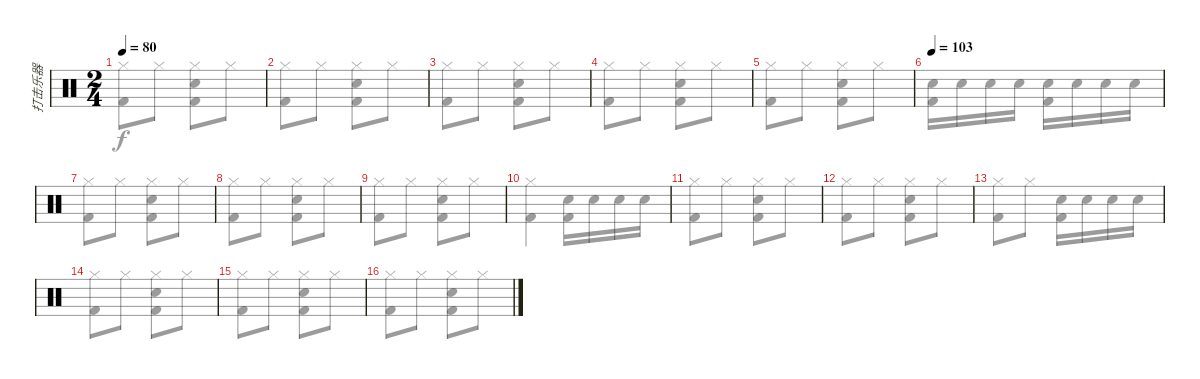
\track ("打击乐器" "打击乐器") {instrument percussion bank 10}
\staff {score}
\articulation defaults
\voice
\ts (2 4)
\tempo 80
\clef neutral
\ks c
|
|
|
|
|
\tempo 103
|
|
|
|
|
|
|
|
|
|
\voice
\clef neutral
\ks c
("Hi-Hat (closed)" "Kick (hit) 2").8{dy f} "Hi-Hat (closed)".8 ("Hi-Hat (closed)" "Electric Snare (hit)" "Kick (hit) 2").8 "Hi-Hat (closed)".8 |
("Hi-Hat (closed)" "Kick (hit) 2").8 "Hi-Hat (closed)".8 ("Hi-Hat (closed)" "Electric Snare (hit)" "Kick (hit) 2").8 "Hi-Hat (closed)".8 |
("Hi-Hat (closed)" "Kick (hit) 2").8 "Hi-Hat (closed)".8 ("Hi-Hat (closed)" "Electric Snare (hit)" "Kick (hit) 2").8 "Hi-Hat (closed)".8 |
("Hi-Hat (closed)" "Kick (hit) 2").8 "Hi-Hat (closed)".8 ("Hi-Hat (closed)" "Electric Snare (hit)" "Kick (hit) 2").8 "Hi-Hat (closed)".8 |
("Hi-Hat (closed)" "Kick (hit) 2").8 "Hi-Hat (closed)".8 ("Hi-Hat (closed)" "Electric Snare (hit)" "Kick (hit) 2").8 "Hi-Hat (closed)".8 |
("Electric Snare (hit)" "Kick (hit) 2").16 "Electric Snare (hit)".16 "Electric Snare (hit)".16 "Electric Snare (hit)".16 ("Electric Snare (hit)" "Kick (hit) 2").16 "Electric Snare (hit)".16 "Electric Snare (hit)".16 "Electric Snare (hit)".16 |
("Hi-Hat (closed)" "Kick (hit) 2").8 "Hi-Hat (closed)".8 ("Hi-Hat (closed)" "Electric Snare (hit)" "Kick (hit) 2").8 "Hi-Hat (closed)".8 |
("Hi-Hat (closed)" "Kick (hit) 2").8 "Hi-Hat (closed)".8 ("Hi-Hat (closed)" "Electric Snare (hit)" "Kick (hit) 2").8 "Hi-Hat (closed)".8 |
("Hi-Hat (closed)" "Kick (hit) 2").8 "Hi-Hat (closed)".8 ("Hi-Hat (closed)" "Electric Snare (hit)" "Kick (hit) 2").8 "Hi-Hat (closed)".8 |
("Hi-Hat (closed)" "Kick (hit) 2").4 ("Electric Snare (hit)" "Kick (hit) 2").16 "Electric Snare (hit)".16 "Electric Snare (hit)".16 "Electric Snare (hit)".16 |
("Hi-Hat (closed)" "Kick (hit) 2").8 "Hi-Hat (closed)".8 ("Hi-Hat (closed)" "Electric Snare (hit)" "Kick (hit) 2").8 "Hi-Hat (closed)".8 |
("Hi-Hat (closed)" "Kick (hit) 2").8 "Hi-Hat (closed)".8 ("Hi-Hat (closed)" "Electric Snare (hit)" "Kick (hit) 2").8 "Hi-Hat (closed)".8 |
("Hi-Hat (closed)" "Kick (hit) 2").8 "Hi-Hat (closed)".8 ("Electric Snare (hit)" "Kick (hit) 2").16 "Electric Snare (hit)".16 "Electric Snare (hit)".16 "Electric Snare (hit)".16 |
("Hi-Hat (closed)" "Kick (hit) 2").8 "Hi-Hat (closed)".8 ("Hi-Hat (closed)" "Electric Snare (hit)" "Kick (hit) 2").8 "Hi-Hat (closed)".8 |
("Hi-Hat (closed)" "Kick (hit) 2").8 "Hi-Hat (closed)".8 ("Hi-Hat (closed)" "Electric Snare (hit)" "Kick (hit) 2").8 "Hi-Hat (closed)".8 |
("Hi-Hat (closed)" "Kick (hit) 2").8 "Hi-Hat (closed)".8 ("Hi-Hat (closed)" "Electric Snare (hit)" "Kick (hit) 2").8 "Hi-Hat (closed)".8
